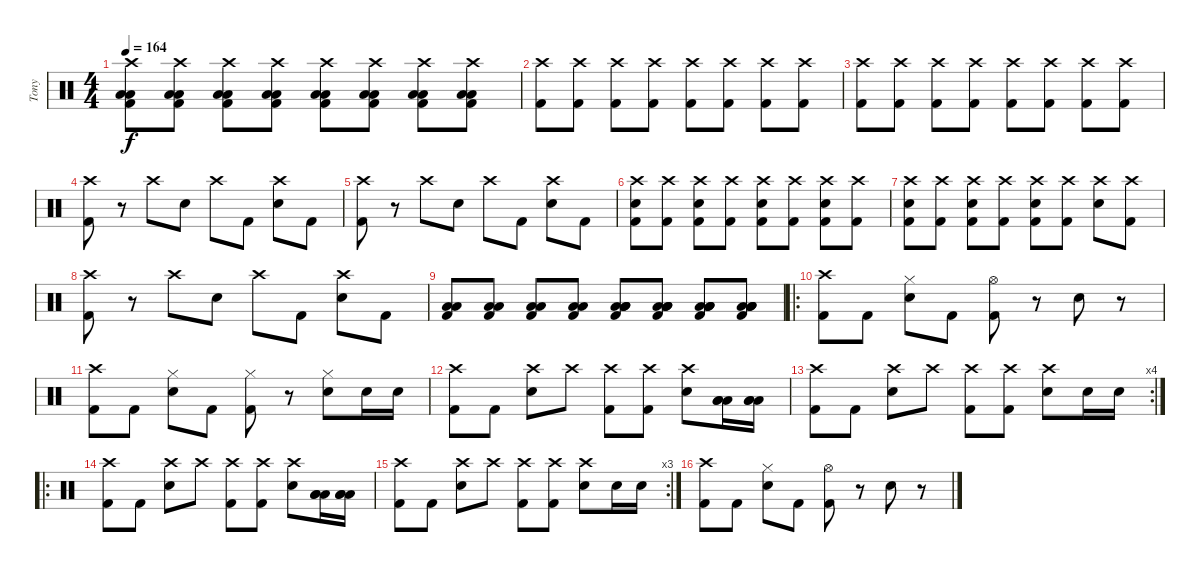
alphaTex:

\track ("Tony" "Tony") {instrument percussion}
\staff {score}
\articulation defaults
\ts (4 4)
\tempo 164
\clef neutral
\ks c
("Crash high (hit)" "Low Floor Tom (hit)" "Low Floor Tom (hit)" "Kick (hit) 2").8{dy f} ("Crash high (hit)" "Low Floor Tom (hit)" "Low Floor Tom (hit)" "Kick (hit) 2").8 ("Crash high (hit)" "Low Floor Tom (hit)" "Low Floor Tom (hit)" "Kick (hit) 2").8 ("Crash high (hit)" "Low Floor Tom (hit)" "Low Floor Tom (hit)" "Kick (hit) 2").8 ("Crash high (hit)" "Low Floor Tom (hit)" "Low Floor Tom (hit)" "Kick (hit) 2").8 ("Crash high (hit)" "Low Floor Tom (hit)" "Low Floor Tom (hit)" "Kick (hit) 2").8 ("Crash high (hit)" "Low Floor Tom (hit)" "Low Floor Tom (hit)" "Kick (hit) 2").8 ("Crash high (hit)" "Low Floor Tom (hit)" "Low Floor Tom (hit)" "Kick (hit) 2").8 |
("Kick (hit) 2" "Crash high (hit)").8 ("Kick (hit) 2" "Crash high (hit)").8 ("Kick (hit) 2" "Crash high (hit)").8 ("Kick (hit) 2" "Crash high (hit)").8 ("Kick (hit) 2" "Crash high (hit)").8 ("Kick (hit) 2" "Crash high (hit)").8 ("Kick (hit) 2" "Crash high (hit)").8 ("Kick (hit) 2" "Crash high (hit)").8 |
("Kick (hit) 2" "Crash high (hit)").8 ("Kick (hit) 2" "Crash high (hit)").8 ("Kick (hit) 2" "Crash high (hit)").8 ("Kick (hit) 2" "Crash high (hit)").8 ("Kick (hit) 2" "Crash high (hit)").8 ("Kick (hit) 2" "Crash high (hit)").8 ("Kick (hit) 2" "Crash high (hit)").8 ("Kick (hit) 2" "Crash high (hit)").8 |
("Kick (hit) 2" "Crash high (hit)").8 r.8 "Crash high (hit)".8 "Snare (hit) 2".8 "Crash high (hit)".8 "Kick (hit) 2".8 ("Crash high (hit)" "Snare (hit) 2").8 "Kick (hit) 2".8 |
("Kick (hit) 2" "Crash high (hit)").8 r.8 "Crash high (hit)".8 "Snare (hit) 2".8 "Crash high (hit)".8 "Kick (hit) 2".8 ("Crash high (hit)" "Snare (hit) 2").8 "Kick (hit) 2".8 |
("Kick (hit) 2" "Crash high (hit)" "Snare (hit) 2").8 ("Kick (hit) 2" "Crash high (hit)").8 ("Kick (hit) 2" "Crash high (hit)" "Snare (hit) 2").8 ("Kick (hit) 2" "Crash high (hit)").8 ("Kick (hit) 2" "Crash high (hit)" "Snare (hit) 2").8 ("Kick (hit) 2" "Crash high (hit)").8 ("Kick (hit) 2" "Crash high (hit)" "Snare (hit) 2").8 ("Kick (hit) 2" "Crash high (hit)").8 |
("Kick (hit) 2" "Crash high (hit)" "Snare (hit) 2").8 ("Kick (hit) 2" "Crash high (hit)").8 ("Kick (hit) 2" "Crash high (hit)" "Snare (hit) 2").8 ("Kick (hit) 2" "Crash high (hit)").8 ("Kick (hit) 2" "Crash high (hit)" "Snare (hit) 2").8 ("Kick (hit) 2" "Crash high (hit)").8 ("Crash high (hit)" "Snare (hit) 2").8 ("Kick (hit) 2" "Crash high (hit)").8 |
("Kick (hit) 2" "Crash high (hit)").8 r.8 "Crash high (hit)".8 "Snare (hit) 2".8 "Crash high (hit)".8 "Kick (hit) 2".8 ("Crash high (hit)" "Snare (hit) 2").8 "Kick (hit) 2".8 |
("Kick (hit) 2" "Low Floor Tom (hit)" "Low Tom (hit)").8 ("Kick (hit) 2" "Low Floor Tom (hit)" "Low Tom (hit)").8 ("Kick (hit) 2" "Low Floor Tom (hit)" "Low Tom (hit)").8 ("Kick (hit) 2" "Low Floor Tom (hit)" "Low Tom (hit)").8 ("Kick (hit) 2" "Low Floor Tom (hit)" "Low Tom (hit)" "Low Floor Tom (hit)" "Low Tom (hit)").8 ("Kick (hit) 2" "Low Floor Tom (hit)" "Low Tom (hit)" "Low Floor Tom (hit)" "Low Tom (hit)").8 ("Kick (hit) 2" "Low Floor Tom (hit)" "Low Tom (hit)" "Low Floor Tom (hit)" "Low Tom (hit)").8 ("Kick (hit) 2" "Low Floor Tom (hit)" "Low Tom (hit)" "Low Floor Tom (hit)" "Low Tom (hit)").8 |
\ro
("Kick (hit) 2" "Crash high (hit)").8 "Kick (hit) 2".8 ("Snare (hit) 2" "Hi-Hat (closed)").8 "Kick (hit) 2".8 ("Kick (hit) 2" "Hi-Hat (open)").8 r.8 "Snare (hit) 2".8 r.8 |
("Kick (hit) 2" "Crash high (hit)").8 "Kick (hit) 2".8 ("Snare (hit) 2" "Hi-Hat (closed)").8 "Kick (hit) 2".8 ("Kick (hit) 2" "Hi-Hat (closed)").8 r.8 ("Snare (hit) 2" "Hi-Hat (closed)").8 "Snare (hit) 2".16 "Snare (hit) 2".16 |
("Kick (hit) 2" "Crash high (hit)").8 "Kick (hit) 2".8 ("Crash high (hit)" "Snare (hit) 2").8 "Crash high (hit)".8 ("Kick (hit) 2" "Crash high (hit)").8 ("Kick (hit) 2" "Crash high (hit)").8 ("Crash high (hit)" "Snare (hit) 2").8 ("Low Floor Tom (hit)" "Low Floor Tom (hit)" "Low Floor Tom (hit)").16 ("Low Floor Tom (hit)" "Low Floor Tom (hit)" "Low Floor Tom (hit)").16 |
\rc 4
("Kick (hit) 2" "Crash high (hit)").8 "Kick (hit) 2".8 ("Crash high (hit)" "Snare (hit) 2").8 "Crash high (hit)".8 ("Kick (hit) 2" "Crash high (hit)").8 ("Kick (hit) 2" "Crash high (hit)").8 ("Crash high (hit)" "Snare (hit) 2").8 "Snare (hit) 2".16 "Snare (hit) 2".16 |
\ro
("Kick (hit) 2" "Crash high (hit)").8 "Kick (hit) 2".8 ("Crash high (hit)" "Snare (hit) 2").8 "Crash high (hit)".8 ("Kick (hit) 2" "Crash high (hit)").8 ("Kick (hit) 2" "Crash high (hit)").8 ("Crash high (hit)" "Snare (hit) 2").8 ("Low Floor Tom (hit)" "Low Floor Tom (hit)" "Low Floor Tom (hit)").16 ("Low Floor Tom (hit)" "Low Floor Tom (hit)" "Low Floor Tom (hit)").16 |
\rc 3
("Kick (hit) 2" "Crash high (hit)").8 "Kick (hit) 2".8 ("Crash high (hit)" "Snare (hit) 2").8 "Crash high (hit)".8 ("Kick (hit) 2" "Crash high (hit)").8 ("Kick (hit) 2" "Crash high (hit)").8 ("Crash high (hit)" "Snare (hit) 2").8 "Snare (hit) 2".16 "Snare (hit) 2".16 |
("Kick (hit) 2" "Crash high (hit)").8 "Kick (hit) 2".8 ("Snare (hit) 2" "Hi-Hat (closed)").8 "Kick (hit) 2".8 ("Kick (hit) 2" "Hi-Hat (open)").8 r.8 "Snare (hit) 2".8 r.8
